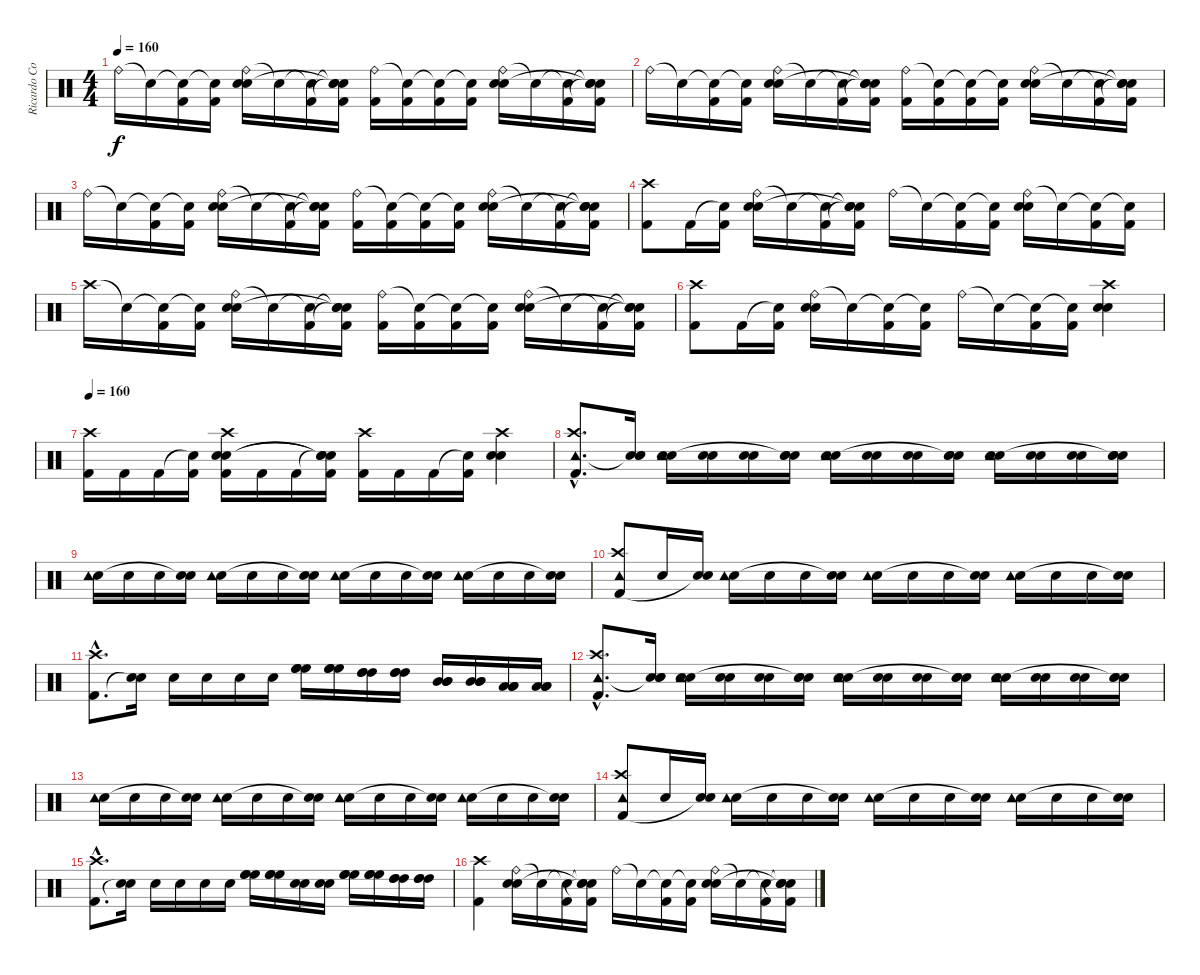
\track ("Ricardo Confessori" "Ricardo Co") {instrument percussion}
\staff {score}
\articulation defaults
\ts (4 4)
\tempo 160
\clef neutral
\ks c "Ride (bell)".16{dy f} "Snare (hit)"{t}.16
("Snare (hit)"{t} "Kick (hit) 2").16 ("Snare (hit)"{t} "Kick (hit) 2").16 ("Ride (bell)" "Electric Snare (hit)" "Snare (hit) 2").16 "Snare (hit)"{t}.16 ("Snare (hit)"{t} "Kick (hit) 2").16 ("Snare (hit)"{t} "Snare (hit)"{t} "Snare (hit)"{t} "Kick (hit) 2").16 ("Ride (bell)" "Kick (hit) 2").16 ("Snare (hit)"{t} "Kick (hit) 2").16 ("Snare (hit)"{t} "Kick (hit) 2").16 ("Snare (hit)"{t} "Kick (hit) 2").16 ("Ride (bell)" "Electric Snare (hit)" "Snare (hit) 2").16 "Snare (hit)"{t}.16 ("Snare (hit)"{t} "Kick (hit) 2").16 ("Snare (hit)"{t} "Snare (hit)"{t} "Snare (hit)"{t} "Kick (hit) 2").16 |
"Ride (bell)".16 "Snare (hit)"{t}.16 ("Snare (hit)"{t} "Kick (hit) 2").16 ("Snare (hit)"{t} "Kick (hit) 2").16 ("Ride (bell)" "Electric Snare (hit)" "Snare (hit) 2").16 "Snare (hit)"{t}.16 ("Snare (hit)"{t} "Kick (hit) 2").16 ("Snare (hit)"{t} "Snare (hit)"{t} "Snare (hit)"{t} "Kick (hit) 2").16 ("Ride (bell)" "Kick (hit) 2").16 ("Snare (hit)"{t} "Kick (hit) 2").16 ("Snare (hit)"{t} "Kick (hit) 2").16 ("Snare (hit)"{t} "Kick (hit) 2").16 ("Ride (bell)" "Electric Snare (hit)" "Snare (hit) 2").16 "Snare (hit)"{t}.16 ("Snare (hit)"{t} "Kick (hit) 2").16 ("Snare (hit)"{t} "Snare (hit)"{t} "Snare (hit)"{t} "Kick (hit) 2").16 |
"Ride (bell)".16 "Snare (hit)"{t}.16 ("Snare (hit)"{t} "Kick (hit) 2").16 ("Snare (hit)"{t} "Kick (hit) 2").16 ("Ride (bell)" "Electric Snare (hit)" "Snare (hit) 2").16 "Snare (hit)"{t}.16 ("Snare (hit)"{t} "Kick (hit) 2").16 ("Snare (hit)"{t} "Snare (hit)"{t} "Snare (hit)"{t} "Kick (hit) 2").16 ("Ride (bell)" "Kick (hit) 2").16 ("Snare (hit)"{t} "Kick (hit) 2").16 ("Snare (hit)"{t} "Kick (hit) 2").16 ("Snare (hit)"{t} "Kick (hit) 2").16 ("Ride (bell)" "Electric Snare (hit)" "Snare (hit) 2").16 "Snare (hit)"{t}.16 ("Snare (hit)"{t} "Kick (hit) 2").16 ("Snare (hit)"{t} "Snare (hit)"{t} "Snare (hit)"{t} "Kick (hit) 2").16 |
("Crash high (hit)" "Kick (hit) 2").8 "Kick (hit) 2".16 ("Snare (hit)"{t} "Kick (hit) 2").16 ("Ride (bell)" "Electric Snare (hit)" "Snare (hit) 2").16 "Snare (hit)"{t}.16 ("Snare (hit)"{t} "Kick (hit) 2").16 ("Snare (hit)"{t} "Snare (hit)"{t} "Snare (hit)"{t} "Kick (hit) 2").16 "Ride (bell)".16 "Snare (hit)"{t}.16 ("Snare (hit)"{t} "Kick (hit) 2").16 ("Snare (hit)"{t} "Kick (hit) 2").16 ("Ride (bell)" "Electric Snare (hit)" "Snare (hit) 2").16 "Snare (hit)"{t}.16 ("Snare (hit)"{t} "Kick (hit) 2").16 ("Snare (hit)"{t} "Kick (hit) 2").16 |
"Crash high (hit)".16 "Snare (hit)"{t}.16 ("Snare (hit)"{t} "Kick (hit) 2").16 ("Snare (hit)"{t} "Kick (hit) 2").16 ("Ride (bell)" "Electric Snare (hit)" "Snare (hit) 2").16 "Snare (hit)"{t}.16 ("Snare (hit)"{t} "Kick (hit) 2").16 ("Snare (hit)"{t} "Snare (hit)"{t} "Snare (hit)"{t} "Kick (hit) 2").16 ("Ride (bell)" "Kick (hit) 2").16 ("Snare (hit)"{t} "Kick (hit) 2").16 ("Snare (hit)"{t} "Kick (hit) 2").16 ("Snare (hit)"{t} "Kick (hit) 2").16 ("Ride (bell)" "Electric Snare (hit)" "Snare (hit) 2").16 "Snare (hit)"{t}.16 ("Snare (hit)"{t} "Kick (hit) 2").16 ("Snare (hit)"{t} "Snare (hit)"{t} "Snare (hit)"{t} "Kick (hit) 2").16 |
("Crash high (hit)" "Kick (hit) 2").8 "Kick (hit) 2".16 ("Snare (hit)"{t} "Kick (hit) 2").16 ("Ride (bell)" "Electric Snare (hit)" "Snare (hit) 2").16 "Snare (hit)"{t}.16 ("Snare (hit)"{t} "Kick (hit) 2").16 ("Snare (hit)"{t} "Kick (hit) 2").16 "Ride (bell)".16 "Snare (hit)"{t}.16 ("Snare (hit)"{t} "Kick (hit) 2").16 ("Snare (hit)"{t} "Kick (hit) 2").16 ("Crash high (hit)" "Electric Snare (hit)" "Snare (hit) 2").4 |
\tempo 160
("Crash high (hit)" "Kick (hit) 2").16 "Kick (hit) 2".16 "Kick (hit) 2".16 ("Snare (hit)"{t} "Kick (hit) 2").16 ("Crash high (hit)" "Electric Snare (hit)" "Snare (hit) 2" "Kick (hit) 2").16 "Kick (hit) 2".16 "Kick (hit) 2".16 ("Snare (hit)"{t} "Snare (hit)"{t} "Snare (hit)"{t} "Kick (hit) 2").16 ("Crash high (hit)" "Kick (hit) 2").16 "Kick (hit) 2".16 "Kick (hit) 2".16 ("Snare (hit)"{t} "Kick (hit) 2").16 ("Crash high (hit)" "Electric Snare (hit)" "Snare (hit) 2").4 |
("Crash high (hit)"{hac} "Kick (hit) 2"{hac} "Tambourine (hit)"{hac}).8{d} ("Electric Snare (hit)" "Snare (hit) 2" "Snare (hit)"{t}).16 ("Electric Snare (hit)" "Snare (hit) 2" "Tambourine (hit)").16 ("Electric Snare (hit)" "Snare (hit) 2").16 ("Electric Snare (hit)" "Snare (hit) 2").16 ("Electric Snare (hit)" "Snare (hit) 2" "Snare (hit)"{t}).16 ("Electric Snare (hit)" "Snare (hit) 2" "Tambourine (hit)").16 ("Electric Snare (hit)" "Snare (hit) 2").16 ("Electric Snare (hit)" "Snare (hit) 2").16 ("Electric Snare (hit)" "Snare (hit) 2" "Snare (hit)"{t}).16 ("Electric Snare (hit)" "Snare (hit) 2" "Tambourine (hit)").16 ("Electric Snare (hit)" "Snare (hit) 2").16 ("Electric Snare (hit)" "Snare (hit) 2").16 ("Electric Snare (hit)" "Snare (hit) 2" "Snare (hit)"{t}).16 |
("Electric Snare (hit)" "Tambourine (hit)").16 "Electric Snare (hit)".16 "Electric Snare (hit)".16 ("Electric Snare (hit)" "Snare (hit)"{t}).16 ("Electric Snare (hit)" "Tambourine (hit)").16 "Electric Snare (hit)".16 "Electric Snare (hit)".16 ("Electric Snare (hit)" "Snare (hit)"{t}).16 ("Electric Snare (hit)" "Tambourine (hit)").16 "Electric Snare (hit)".16 "Electric Snare (hit)".16 ("Electric Snare (hit)" "Snare (hit)"{t}).16 ("Electric Snare (hit)" "Tambourine (hit)").16 "Electric Snare (hit)".16 "Electric Snare (hit)".16 ("Electric Snare (hit)" "Snare (hit)"{t}).16 |
("Crash high (hit)" "Kick (hit) 2" "Tambourine (hit)").8 "Electric Snare (hit)".16 ("Electric Snare (hit)" "Snare (hit)"{t}).16 ("Electric Snare (hit)" "Tambourine (hit)").16 "Electric Snare (hit)".16 "Electric Snare (hit)".16 ("Electric Snare (hit)" "Snare (hit)"{t}).16 ("Electric Snare (hit)" "Tambourine (hit)").16 "Electric Snare (hit)".16 "Electric Snare (hit)".16 ("Electric Snare (hit)" "Snare (hit)"{t}).16 ("Electric Snare (hit)" "Tambourine (hit)").16 "Electric Snare (hit)".16 "Electric Snare (hit)".16 ("Electric Snare (hit)" "Snare (hit)"{t}).16 |
("Crash high (hit)"{hac} "Kick (hit) 2"{hac}).8{d} ("Electric Snare (hit)" "Snare (hit)"{t}).16 "Electric Snare (hit)".16 "Electric Snare (hit)".16 "Electric Snare (hit)".16 "Electric Snare (hit)".16 ("High Floor Tom (hit)" "High Floor Tom (hit)" "High Floor Tom (hit)").16 ("High Floor Tom (hit)" "High Floor Tom (hit)" "High Floor Tom (hit)").16 ("High Tom (hit)" "High Tom (hit)" "High Tom (hit)").16 ("High Tom (hit)" "High Tom (hit)" "High Tom (hit)").16 ("Mid Tom (hit)" "Mid Tom (hit)" "Mid Tom (hit)").16 ("Mid Tom (hit)" "Mid Tom (hit)" "Mid Tom (hit)").16 ("Low Tom (hit)" "Low Tom (hit)" "Low Tom (hit)").16 ("Low Tom (hit)" "Low Tom (hit)" "Low Tom (hit)").16 |
("Crash high (hit)"{hac} "Kick (hit) 2"{hac} "Tambourine (hit)"{hac}).8{d} ("Electric Snare (hit)" "Snare (hit) 2" "Snare (hit)"{t}).16 ("Electric Snare (hit)" "Snare (hit) 2" "Tambourine (hit)").16 ("Electric Snare (hit)" "Snare (hit) 2").16 ("Electric Snare (hit)" "Snare (hit) 2").16 ("Electric Snare (hit)" "Snare (hit) 2" "Snare (hit)"{t}).16 ("Electric Snare (hit)" "Snare (hit) 2" "Tambourine (hit)").16 ("Electric Snare (hit)" "Snare (hit) 2").16 ("Electric Snare (hit)" "Snare (hit) 2").16 ("Electric Snare (hit)" "Snare (hit) 2" "Snare (hit)"{t}).16 ("Electric Snare (hit)" "Snare (hit) 2" "Tambourine (hit)").16 ("Electric Snare (hit)" "Snare (hit) 2").16 ("Electric Snare (hit)" "Snare (hit) 2").16 ("Electric Snare (hit)" "Snare (hit) 2" "Snare (hit)"{t}).16 |
("Electric Snare (hit)" "Tambourine (hit)").16 "Electric Snare (hit)".16 "Electric Snare (hit)".16 ("Electric Snare (hit)" "Snare (hit)"{t}).16 ("Electric Snare (hit)" "Tambourine (hit)").16 "Electric Snare (hit)".16 "Electric Snare (hit)".16 ("Electric Snare (hit)" "Snare (hit)"{t}).16 ("Electric Snare (hit)" "Tambourine (hit)").16 "Electric Snare (hit)".16 "Electric Snare (hit)".16 ("Electric Snare (hit)" "Snare (hit)"{t}).16 ("Electric Snare (hit)" "Tambourine (hit)").16 "Electric Snare (hit)".16 "Electric Snare (hit)".16 ("Electric Snare (hit)" "Snare (hit)"{t}).16 |
("Crash high (hit)" "Kick (hit) 2" "Tambourine (hit)").8 "Electric Snare (hit)".16 ("Electric Snare (hit)" "Snare (hit)"{t}).16 ("Electric Snare (hit)" "Tambourine (hit)").16 "Electric Snare (hit)".16 "Electric Snare (hit)".16 ("Electric Snare (hit)" "Snare (hit)"{t}).16 ("Electric Snare (hit)" "Tambourine (hit)").16 "Electric Snare (hit)".16 "Electric Snare (hit)".16 ("Electric Snare (hit)" "Snare (hit)"{t}).16 ("Electric Snare (hit)" "Tambourine (hit)").16 "Electric Snare (hit)".16 "Electric Snare (hit)".16 ("Electric Snare (hit)" "Snare (hit)"{t}).16 |
("Crash high (hit)"{hac} "Kick (hit) 2"{hac}).8{d} ("Electric Snare (hit)" "Snare (hit)"{t}).16 "Electric Snare (hit)".16 "Electric Snare (hit)".16 "Electric Snare (hit)".16 "Electric Snare (hit)".16 ("High Floor Tom (hit)" "High Floor Tom (hit)" "High Floor Tom (hit)").16 ("High Floor Tom (hit)" "High Floor Tom (hit)" "High Floor Tom (hit)").16 ("Electric Snare (hit)" "Snare (hit) 2").16 ("Electric Snare (hit)" "Snare (hit) 2").16 ("High Floor Tom (hit)" "High Floor Tom (hit)" "High Floor Tom (hit)").16 ("High Floor Tom (hit)" "High Floor Tom (hit)" "High Floor Tom (hit)").16 ("High Tom (hit)" "High Tom (hit)" "High Tom (hit)").16 ("High Tom (hit)" "High Tom (hit)" "High Tom (hit)").16 |
("Crash high (hit)" "Kick (hit) 2").4 ("Ride (bell)" "Electric Snare (hit)" "Snare (hit) 2").16 "Snare (hit)"{t}.16 ("Snare (hit)"{t} "Kick (hit) 2").16 ("Snare (hit)"{t} "Snare (hit)"{t} "Snare (hit)"{t} "Kick (hit) 2").16 "Ride (bell)".16 "Snare (hit)"{t}.16 ("Snare (hit)"{t} "Kick (hit) 2").16 ("Snare (hit)"{t} "Kick (hit) 2").16 ("Ride (bell)" "Electric Snare (hit)" "Snare (hit) 2").16 "Snare (hit)"{t}.16 ("Snare (hit)"{t} "Kick (hit) 2").16 ("Snare (hit)"{t} "Snare (hit)"{t} "Snare (hit)"{t} "Kick (hit) 2").16
